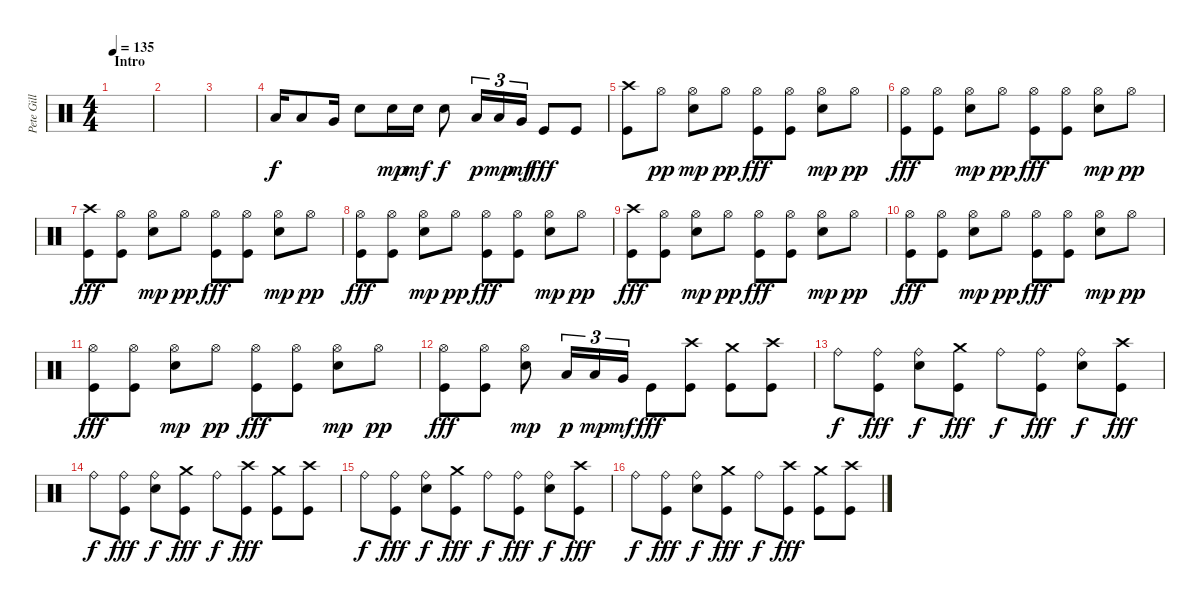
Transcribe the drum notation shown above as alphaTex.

\track ("Pete Gill" "Pete Gill") {instrument percussion}
\staff {score}
\articulation defaults
\ts (4 4)
\section ("" "Intro")
\tempo 135
\clef neutral
\ks c
|
|
|
"Low Tom (hit)".16 "Low Tom (hit)".8 "Very Low Tom (hit)".16 "Electric Snare (hit)".8 "Electric Snare (hit)".16{dy mp} "Electric Snare (hit)".16{dy mf} "Electric Snare (hit)".8{dy f} "Low Tom (hit)".16{tu (3 2) dy p} "Low Tom (hit)".16{tu (3 2) dy mp} "Very Low Tom (hit)".16{tu (3 2) dy mf} "Kick (hit)".8{dy fff} "Kick (hit)".8 |
("Crash high (hit)" "Kick (hit)").8 "Hi-Hat (open)".8{dy pp} ("Hi-Hat (open)" "Electric Snare (hit)").8{dy mp} "Hi-Hat (open)".8{dy pp} ("Hi-Hat (open)" "Kick (hit)").8{dy fff} ("Hi-Hat (open)" "Kick (hit)").8 ("Hi-Hat (open)" "Electric Snare (hit)").8{dy mp} "Hi-Hat (open)".8{dy pp} |
("Hi-Hat (open)" "Kick (hit)").8{dy fff} ("Hi-Hat (open)" "Kick (hit)").8 ("Hi-Hat (open)" "Electric Snare (hit)").8{dy mp} "Hi-Hat (open)".8{dy pp} ("Hi-Hat (open)" "Kick (hit)").8{dy fff} ("Hi-Hat (open)" "Kick (hit)").8 ("Hi-Hat (open)" "Electric Snare (hit)").8{dy mp} "Hi-Hat (open)".8{dy pp} |
("Crash high (hit)" "Kick (hit)").8{dy fff} ("Hi-Hat (open)" "Kick (hit)").8 ("Hi-Hat (open)" "Electric Snare (hit)").8{dy mp} "Hi-Hat (open)".8{dy pp} ("Hi-Hat (open)" "Kick (hit)").8{dy fff} ("Hi-Hat (open)" "Kick (hit)").8 ("Hi-Hat (open)" "Electric Snare (hit)").8{dy mp} "Hi-Hat (open)".8{dy pp} |
("Hi-Hat (open)" "Kick (hit)").8{dy fff} ("Hi-Hat (open)" "Kick (hit)").8 ("Hi-Hat (open)" "Electric Snare (hit)").8{dy mp} "Hi-Hat (open)".8{dy pp} ("Hi-Hat (open)" "Kick (hit)").8{dy fff} ("Hi-Hat (open)" "Kick (hit)").8 ("Hi-Hat (open)" "Electric Snare (hit)").8{dy mp} "Hi-Hat (open)".8{dy pp} |
("Crash high (hit)" "Kick (hit)").8{dy fff} ("Hi-Hat (open)" "Kick (hit)").8 ("Hi-Hat (open)" "Electric Snare (hit)").8{dy mp} "Hi-Hat (open)".8{dy pp} ("Hi-Hat (open)" "Kick (hit)").8{dy fff} ("Hi-Hat (open)" "Kick (hit)").8 ("Hi-Hat (open)" "Electric Snare (hit)").8{dy mp} "Hi-Hat (open)".8{dy pp} |
("Hi-Hat (open)" "Kick (hit)").8{dy fff} ("Hi-Hat (open)" "Kick (hit)").8 ("Hi-Hat (open)" "Electric Snare (hit)").8{dy mp} "Hi-Hat (open)".8{dy pp} ("Hi-Hat (open)" "Kick (hit)").8{dy fff} ("Hi-Hat (open)" "Kick (hit)").8 ("Hi-Hat (open)" "Electric Snare (hit)").8{dy mp} "Hi-Hat (open)".8{dy pp} |
("Hi-Hat (open)" "Kick (hit)").8{dy fff} ("Hi-Hat (open)" "Kick (hit)").8 ("Hi-Hat (open)" "Electric Snare (hit)").8{dy mp} "Hi-Hat (open)".8{dy pp} ("Hi-Hat (open)" "Kick (hit)").8{dy fff} ("Hi-Hat (open)" "Kick (hit)").8 ("Hi-Hat (open)" "Electric Snare (hit)").8{dy mp} "Hi-Hat (open)".8{dy pp} |
("Hi-Hat (open)" "Kick (hit)").8{dy fff} ("Hi-Hat (open)" "Kick (hit)").8 ("Hi-Hat (open)" "Electric Snare (hit)").8{dy mp} "Low Tom (hit)".16{tu (3 2) dy p} "Low Tom (hit)".16{tu (3 2) dy mp} "Very Low Tom (hit)".16{tu (3 2) dy mf} "Kick (hit)".8{dy fff} ("Crash high (hit)" "Kick (hit)").8 ("Crash medium (hit)" "Kick (hit)").8 ("Crash high (hit)" "Kick (hit)").8 |
"Ride (bell)".8{dy f} ("Ride (bell)" "Kick (hit)").8{dy fff} ("Ride (bell)" "Electric Snare (hit)").8{dy f} ("Crash medium (hit)" "Kick (hit)").8{dy fff} "Ride (bell)".8{dy f} ("Ride (bell)" "Kick (hit)").8{dy fff} ("Ride (bell)" "Electric Snare (hit)").8{dy f} ("Crash high (hit)" "Kick (hit)").8{dy fff} |
"Ride (bell)".8{dy f} ("Ride (bell)" "Kick (hit)").8{dy fff} ("Ride (bell)" "Electric Snare (hit)").8{dy f} ("Crash medium (hit)" "Kick (hit)").8{dy fff} "Ride (bell)".8{dy f} ("Crash high (hit)" "Kick (hit)").8{dy fff} ("Crash medium (hit)" "Kick (hit)").8 ("Crash high (hit)" "Kick (hit)").8 |
"Ride (bell)".8{dy f} ("Ride (bell)" "Kick (hit)").8{dy fff} ("Ride (bell)" "Electric Snare (hit)").8{dy f} ("Crash medium (hit)" "Kick (hit)").8{dy fff} "Ride (bell)".8{dy f} ("Ride (bell)" "Kick (hit)").8{dy fff} ("Ride (bell)" "Electric Snare (hit)").8{dy f} ("Crash high (hit)" "Kick (hit)").8{dy fff} |
"Ride (bell)".8{dy f} ("Ride (bell)" "Kick (hit)").8{dy fff} ("Ride (bell)" "Electric Snare (hit)").8{dy f} ("Crash medium (hit)" "Kick (hit)").8{dy fff} "Ride (bell)".8{dy f} ("Crash high (hit)" "Kick (hit)").8{dy fff} ("Crash medium (hit)" "Kick (hit)").8 ("Crash high (hit)" "Kick (hit)").8
